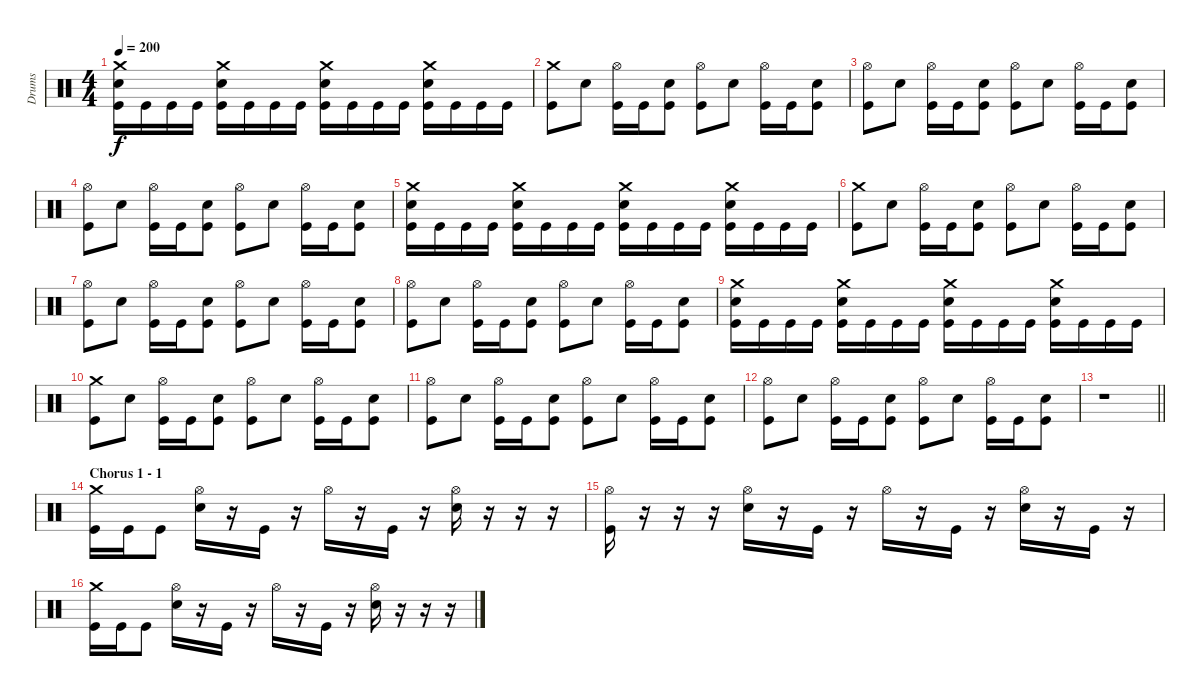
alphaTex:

\track ("Drums" "Drums") {instrument percussion}
\staff {score}
\articulation defaults
\ts (4 4)
\tempo 200
\clef neutral
\ks c
("Crash medium (hit)" "Snare (hit) 2" "Kick (hit)").16{dy f} "Kick (hit)".16 "Kick (hit)".16 "Kick (hit)".16 ("Crash medium (hit)" "Snare (hit) 2" "Kick (hit)").16 "Kick (hit)".16 "Kick (hit)".16 "Kick (hit)".16 ("Crash medium (hit)" "Snare (hit) 2" "Kick (hit)").16 "Kick (hit)".16 "Kick (hit)".16 "Kick (hit)".16 ("Crash medium (hit)" "Snare (hit) 2" "Kick (hit)").16 "Kick (hit)".16 "Kick (hit)".16 "Kick (hit)".16 |
("Crash medium (hit)" "Kick (hit)").8 "Snare (hit) 2".8 ("Hi-Hat (open)" "Kick (hit)").16 "Kick (hit)".16 ("Snare (hit) 2" "Kick (hit)").8 ("Hi-Hat (open)" "Kick (hit)").8 "Snare (hit) 2".8 ("Hi-Hat (open)" "Kick (hit)").16 "Kick (hit)".16 ("Snare (hit) 2" "Kick (hit)").8 |
("Hi-Hat (open)" "Kick (hit)").8 "Snare (hit) 2".8 ("Hi-Hat (open)" "Kick (hit)").16 "Kick (hit)".16 ("Snare (hit) 2" "Kick (hit)").8 ("Hi-Hat (open)" "Kick (hit)").8 "Snare (hit) 2".8 ("Hi-Hat (open)" "Kick (hit)").16 "Kick (hit)".16 ("Snare (hit) 2" "Kick (hit)").8 |
("Hi-Hat (open)" "Kick (hit)").8 "Snare (hit) 2".8 ("Hi-Hat (open)" "Kick (hit)").16 "Kick (hit)".16 ("Snare (hit) 2" "Kick (hit)").8 ("Hi-Hat (open)" "Kick (hit)").8 "Snare (hit) 2".8 ("Hi-Hat (open)" "Kick (hit)").16 "Kick (hit)".16 ("Snare (hit) 2" "Kick (hit)").8 |
("Crash medium (hit)" "Snare (hit) 2" "Kick (hit)").16 "Kick (hit)".16 "Kick (hit)".16 "Kick (hit)".16 ("Crash medium (hit)" "Snare (hit) 2" "Kick (hit)").16 "Kick (hit)".16 "Kick (hit)".16 "Kick (hit)".16 ("Crash medium (hit)" "Snare (hit) 2" "Kick (hit)").16 "Kick (hit)".16 "Kick (hit)".16 "Kick (hit)".16 ("Crash medium (hit)" "Snare (hit) 2" "Kick (hit)").16 "Kick (hit)".16 "Kick (hit)".16 "Kick (hit)".16 |
("Crash medium (hit)" "Kick (hit)").8 "Snare (hit) 2".8 ("Hi-Hat (open)" "Kick (hit)").16 "Kick (hit)".16 ("Snare (hit) 2" "Kick (hit)").8 ("Hi-Hat (open)" "Kick (hit)").8 "Snare (hit) 2".8 ("Hi-Hat (open)" "Kick (hit)").16 "Kick (hit)".16 ("Snare (hit) 2" "Kick (hit)").8 |
("Hi-Hat (open)" "Kick (hit)").8 "Snare (hit) 2".8 ("Hi-Hat (open)" "Kick (hit)").16 "Kick (hit)".16 ("Snare (hit) 2" "Kick (hit)").8 ("Hi-Hat (open)" "Kick (hit)").8 "Snare (hit) 2".8 ("Hi-Hat (open)" "Kick (hit)").16 "Kick (hit)".16 ("Snare (hit) 2" "Kick (hit)").8 |
("Hi-Hat (open)" "Kick (hit)").8 "Snare (hit) 2".8 ("Hi-Hat (open)" "Kick (hit)").16 "Kick (hit)".16 ("Snare (hit) 2" "Kick (hit)").8 ("Hi-Hat (open)" "Kick (hit)").8 "Snare (hit) 2".8 ("Hi-Hat (open)" "Kick (hit)").16 "Kick (hit)".16 ("Snare (hit) 2" "Kick (hit)").8 |
("Crash medium (hit)" "Snare (hit) 2" "Kick (hit)").16 "Kick (hit)".16 "Kick (hit)".16 "Kick (hit)".16 ("Crash medium (hit)" "Snare (hit) 2" "Kick (hit)").16 "Kick (hit)".16 "Kick (hit)".16 "Kick (hit)".16 ("Crash medium (hit)" "Snare (hit) 2" "Kick (hit)").16 "Kick (hit)".16 "Kick (hit)".16 "Kick (hit)".16 ("Crash medium (hit)" "Snare (hit) 2" "Kick (hit)").16 "Kick (hit)".16 "Kick (hit)".16 "Kick (hit)".16 |
("Crash medium (hit)" "Kick (hit)").8 "Snare (hit) 2".8 ("Hi-Hat (open)" "Kick (hit)").16 "Kick (hit)".16 ("Snare (hit) 2" "Kick (hit)").8 ("Hi-Hat (open)" "Kick (hit)").8 "Snare (hit) 2".8 ("Hi-Hat (open)" "Kick (hit)").16 "Kick (hit)".16 ("Snare (hit) 2" "Kick (hit)").8 |
("Hi-Hat (open)" "Kick (hit)").8 "Snare (hit) 2".8 ("Hi-Hat (open)" "Kick (hit)").16 "Kick (hit)".16 ("Snare (hit) 2" "Kick (hit)").8 ("Hi-Hat (open)" "Kick (hit)").8 "Snare (hit) 2".8 ("Hi-Hat (open)" "Kick (hit)").16 "Kick (hit)".16 ("Snare (hit) 2" "Kick (hit)").8 |
("Hi-Hat (open)" "Kick (hit)").8 "Snare (hit) 2".8 ("Hi-Hat (open)" "Kick (hit)").16 "Kick (hit)".16 ("Snare (hit) 2" "Kick (hit)").8 ("Hi-Hat (open)" "Kick (hit)").8 "Snare (hit) 2".8 ("Hi-Hat (open)" "Kick (hit)").16 "Kick (hit)".16 ("Snare (hit) 2" "Kick (hit)").8 |
\barLineRight lightlight
r.1 |
\section ("" "Chorus 1 - 1")
("Crash medium (hit)" "Kick (hit)").16 "Kick (hit)".16 "Kick (hit)".8 ("Hi-Hat (open)" "Snare (hit) 2").16 r.16 "Kick (hit)".16 r.16 "Hi-Hat (open)".16 r.16 "Kick (hit)".16 r.16 ("Hi-Hat (open)" "Snare (hit) 2").16 r.16 r.16 r.16 |
("Hi-Hat (open)" "Kick (hit)").16 r.16 r.16 r.16 ("Hi-Hat (open)" "Snare (hit) 2").16 r.16 "Kick (hit)".16 r.16 "Hi-Hat (open)".16 r.16 "Kick (hit)".16 r.16 ("Hi-Hat (open)" "Snare (hit) 2").16 r.16 "Kick (hit)".16 r.16 |
("Crash medium (hit)" "Kick (hit)").16 "Kick (hit)".16 "Kick (hit)".8 ("Hi-Hat (open)" "Snare (hit) 2").16 r.16 "Kick (hit)".16 r.16 "Hi-Hat (open)".16 r.16 "Kick (hit)".16 r.16 ("Hi-Hat (open)" "Snare (hit) 2").16 r.16 r.16 r.16
